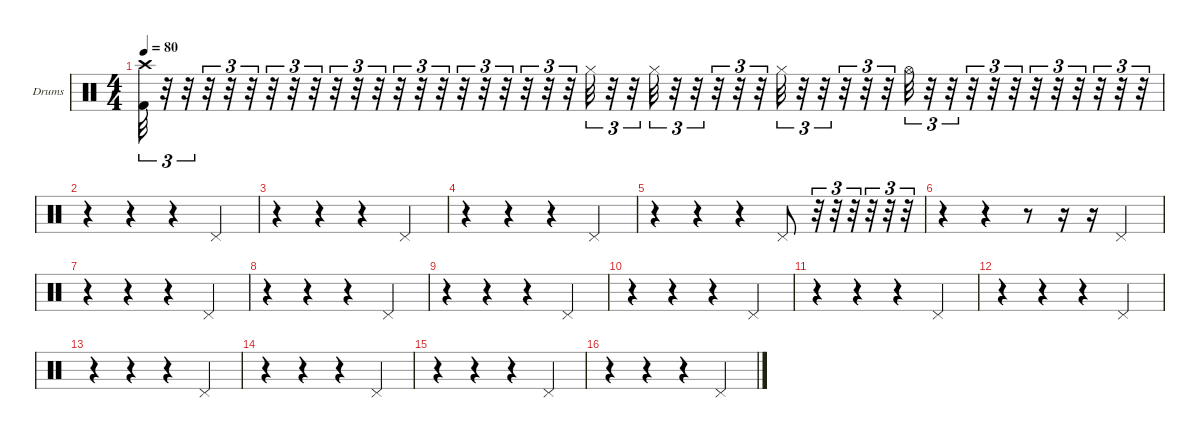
\hideDynamics
\bracketExtendMode nobrackets
\firstSystemTrackNameOrientation horizontal
\otherSystemsTrackNameOrientation horizontal
\track ("Drumkit" "Drums") {instrument percussion}
\staff {score}
\articulation defaults
\ts (4 4)
\tempo 80
\clef neutral
\ks c
("Crash high (hit)" "Kick (hit) 2").32{tu (3 2) dy f} r.32{tu (3 2)} r.32{tu (3 2)} r.32{tu (3 2)} r.32{tu (3 2)} r.32{tu (3 2)} r.32{tu (3 2)} r.32{tu (3 2)} r.32{tu (3 2)} r.32{tu (3 2)} r.32{tu (3 2)} r.32{tu (3 2)} r.32{tu (3 2)} r.32{tu (3 2)} r.32{tu (3 2)} r.32{tu (3 2)} r.32{tu (3 2)} r.32{tu (3 2)} r.32{tu (3 2)} r.32{tu (3 2)} r.32{tu (3 2)} "Hi-Hat (closed)".32{tu (3 2) dy mp} r.32{tu (3 2)} r.32{tu (3 2)} "Hi-Hat (closed)".32{tu (3 2) dy mf} r.32{tu (3 2)} r.32{tu (3 2)} r.32{tu (3 2)} r.32{tu (3 2)} r.32{tu (3 2)} "Hi-Hat (closed)".32{tu (3 2) dy f} r.32{tu (3 2)} r.32{tu (3 2)} r.32{tu (3 2)} r.32{tu (3 2)} r.32{tu (3 2)} "Hi-Hat (open)".32{tu (3 2)} r.32{tu (3 2)} r.32{tu (3 2)} r.32{tu (3 2)} r.32{tu (3 2)} r.32{tu (3 2)} r.32{tu (3 2)} r.32{tu (3 2)} r.32{tu (3 2)} r.32{tu (3 2)} r.32{tu (3 2)} r.32{tu (3 2)} |
r.4 r.4 r.4 "Pedal Hi-Hat (hit)".4 |
r.4 r.4 r.4 "Pedal Hi-Hat (hit)".4 |
r.4 r.4 r.4 "Pedal Hi-Hat (hit)".4 |
r.4 r.4 r.4 "Pedal Hi-Hat (hit)".8 r.32{tu (3 2)} r.32{tu (3 2)} r.32{tu (3 2)} r.32{tu (3 2)} r.32{tu (3 2)} r.32{tu (3 2)} |
r.4 r.4 r.8 r.16 r.16 "Pedal Hi-Hat (hit)".4 |
r.4 r.4 r.4 "Pedal Hi-Hat (hit)".4 |
r.4 r.4 r.4 "Pedal Hi-Hat (hit)".4 |
r.4 r.4 r.4 "Pedal Hi-Hat (hit)".4 |
r.4 r.4 r.4 "Pedal Hi-Hat (hit)".4 |
r.4 r.4 r.4 "Pedal Hi-Hat (hit)".4 |
r.4 r.4 r.4 "Pedal Hi-Hat (hit)".4 |
r.4 r.4 r.4 "Pedal Hi-Hat (hit)".4 |
r.4 r.4 r.4 "Pedal Hi-Hat (hit)".4 |
r.4 r.4 r.4 "Pedal Hi-Hat (hit)".4 |
r.4 r.4 r.4 "Pedal Hi-Hat (hit)".4
